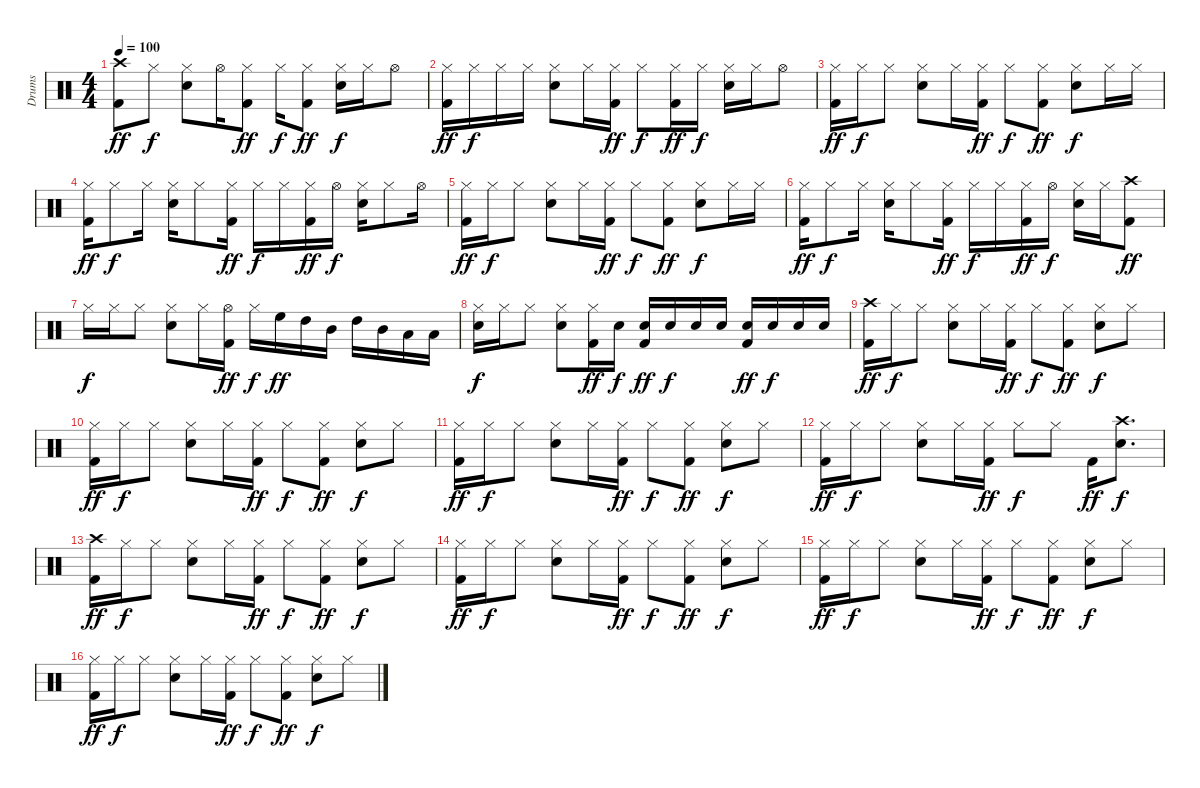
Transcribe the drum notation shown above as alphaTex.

\track ("Drums" "Drums") {instrument percussion}
\staff {score}
\articulation defaults
\ts (4 4)
\tempo 100
\clef neutral
\ks c
("Crash high (hit)" "Kick (hit) 2").8{dy ff} "Hi-Hat (closed)".8{dy f} ("Hi-Hat (closed)" "Snare (hit) 2").8 "Hi-Hat (open)".16 ("Hi-Hat (closed)" "Kick (hit) 2").8{dy ff} "Hi-Hat (closed)".16{dy f} ("Hi-Hat (closed)" "Kick (hit) 2").8{dy ff} ("Hi-Hat (closed)" "Snare (hit) 2").16{dy f} "Hi-Hat (closed)".16 "Hi-Hat (open)".8 |
("Hi-Hat (closed)" "Kick (hit) 2").16{dy ff} "Hi-Hat (closed)".16{dy f} "Hi-Hat (closed)".16 "Hi-Hat (closed)".16 ("Hi-Hat (closed)" "Snare (hit) 2").8 "Hi-Hat (closed)".16 ("Hi-Hat (closed)" "Kick (hit) 2").16{dy ff} "Hi-Hat (closed)".8{dy f} ("Hi-Hat (closed)" "Kick (hit) 2").16{dy ff} "Hi-Hat (closed)".16{dy f} ("Hi-Hat (closed)" "Snare (hit) 2").16 "Hi-Hat (closed)".16 "Hi-Hat (open)".8 |
("Hi-Hat (closed)" "Kick (hit) 2").16{dy ff} "Hi-Hat (closed)".16{dy f} "Hi-Hat (closed)".8 ("Hi-Hat (closed)" "Snare (hit) 2").8 "Hi-Hat (closed)".16 ("Hi-Hat (closed)" "Kick (hit) 2").16{dy ff} "Hi-Hat (closed)".8{dy f} ("Hi-Hat (closed)" "Kick (hit) 2").8{dy ff} ("Hi-Hat (closed)" "Snare (hit) 2").8{dy f} "Hi-Hat (closed)".16 "Hi-Hat (closed)".16 |
("Hi-Hat (closed)" "Kick (hit) 2").16{dy ff} "Hi-Hat (closed)".8{dy f} "Hi-Hat (closed)".16 ("Hi-Hat (closed)" "Snare (hit) 2").16 "Hi-Hat (closed)".8 ("Hi-Hat (closed)" "Kick (hit) 2").16{dy ff} "Hi-Hat (closed)".16{dy f} "Hi-Hat (closed)".16 ("Hi-Hat (closed)" "Kick (hit) 2").16{dy ff} "Hi-Hat (open)".16{dy f} ("Hi-Hat (closed)" "Snare (hit) 2").16 "Hi-Hat (closed)".8 "Hi-Hat (open)".16 |
("Hi-Hat (closed)" "Kick (hit) 2").16{dy ff} "Hi-Hat (closed)".16{dy f} "Hi-Hat (closed)".8 ("Hi-Hat (closed)" "Snare (hit) 2").8 "Hi-Hat (closed)".16 ("Hi-Hat (closed)" "Kick (hit) 2").16{dy ff} "Hi-Hat (closed)".8{dy f} ("Hi-Hat (closed)" "Kick (hit) 2").8{dy ff} ("Hi-Hat (closed)" "Snare (hit) 2").8{dy f} "Hi-Hat (closed)".16 "Hi-Hat (closed)".16 |
("Hi-Hat (closed)" "Kick (hit) 2").16{dy ff} "Hi-Hat (closed)".8{dy f} "Hi-Hat (closed)".16 ("Hi-Hat (closed)" "Snare (hit) 2").16 "Hi-Hat (closed)".8 ("Hi-Hat (closed)" "Kick (hit) 2").16{dy ff} "Hi-Hat (closed)".16{dy f} "Hi-Hat (closed)".16 ("Hi-Hat (closed)" "Kick (hit) 2").16{dy ff} "Hi-Hat (open)".16{dy f} ("Hi-Hat (closed)" "Snare (hit) 2").16 "Hi-Hat (closed)".16 ("Crash high (hit)" "Kick (hit) 2").8{dy ff} |
"Hi-Hat (closed)".16{dy f} "Hi-Hat (closed)".16 "Hi-Hat (closed)".8 ("Hi-Hat (closed)" "Snare (hit) 2").8 "Hi-Hat (closed)".16 ("Hi-Hat (open)" "Kick (hit) 2").16{dy ff} "Hi-Hat (closed)".16{dy f} "High Floor Tom (hit)".16{dy ff} "High Tom (hit)".16 "Mid Tom (hit)".16 "High Tom (hit)".16 "Mid Tom (hit)".16 "Low Tom (hit)".16 "Low Tom (hit)".16 |
("Hi-Hat (closed)" "Snare (hit) 2").16{dy f} "Hi-Hat (closed)".16 "Hi-Hat (closed)".8 ("Hi-Hat (closed)" "Snare (hit) 2").8 ("Hi-Hat (closed)" "Kick (hit) 2").16{dy ff} "Snare (hit) 2".16{dy f} ("Snare (hit) 2" "Kick (hit) 2").16{dy ff} "Snare (hit) 2".16{dy f} "Snare (hit) 2".16 "Snare (hit) 2".16 ("Snare (hit) 2" "Kick (hit) 2").16{dy ff} "Snare (hit) 2".16{dy f} "Snare (hit) 2".16 "Snare (hit) 2".16 |
("Crash high (hit)" "Kick (hit) 2").16{dy ff} "Hi-Hat (closed)".16{dy f} "Hi-Hat (closed)".8 ("Hi-Hat (closed)" "Snare (hit) 2").8 "Hi-Hat (closed)".16 ("Hi-Hat (closed)" "Kick (hit) 2").16{dy ff} "Hi-Hat (closed)".8{dy f} ("Hi-Hat (closed)" "Kick (hit) 2").8{dy ff} ("Hi-Hat (closed)" "Snare (hit) 2").8{dy f} "Hi-Hat (closed)".8 |
("Hi-Hat (closed)" "Kick (hit) 2").16{dy ff} "Hi-Hat (closed)".16{dy f} "Hi-Hat (closed)".8 ("Hi-Hat (closed)" "Snare (hit) 2").8 "Hi-Hat (closed)".16 ("Hi-Hat (closed)" "Kick (hit) 2").16{dy ff} "Hi-Hat (closed)".8{dy f} ("Hi-Hat (closed)" "Kick (hit) 2").8{dy ff} ("Hi-Hat (closed)" "Snare (hit) 2").8{dy f} "Hi-Hat (closed)".8 |
("Hi-Hat (closed)" "Kick (hit) 2").16{dy ff} "Hi-Hat (closed)".16{dy f} "Hi-Hat (closed)".8 ("Hi-Hat (closed)" "Snare (hit) 2").8 "Hi-Hat (closed)".16 ("Hi-Hat (closed)" "Kick (hit) 2").16{dy ff} "Hi-Hat (closed)".8{dy f} ("Hi-Hat (closed)" "Kick (hit) 2").8{dy ff} ("Hi-Hat (closed)" "Snare (hit) 2").8{dy f} "Hi-Hat (closed)".8 |
("Hi-Hat (closed)" "Kick (hit) 2").16{dy ff} "Hi-Hat (closed)".16{dy f} "Hi-Hat (closed)".8 ("Hi-Hat (closed)" "Snare (hit) 2").8 "Hi-Hat (closed)".16 ("Hi-Hat (closed)" "Kick (hit) 2").16{dy ff} "Hi-Hat (closed)".8{dy f} "Hi-Hat (closed)".8 "Kick (hit) 2".16{dy ff} ("Crash high (hit)" "Snare (hit) 2").8{d dy f} |
("Crash high (hit)" "Kick (hit) 2").16{dy ff} "Hi-Hat (closed)".16{dy f} "Hi-Hat (closed)".8 ("Hi-Hat (closed)" "Snare (hit) 2").8 "Hi-Hat (closed)".16 ("Hi-Hat (closed)" "Kick (hit) 2").16{dy ff} "Hi-Hat (closed)".8{dy f} ("Hi-Hat (closed)" "Kick (hit) 2").8{dy ff} ("Hi-Hat (closed)" "Snare (hit) 2").8{dy f} "Hi-Hat (closed)".8 |
("Hi-Hat (closed)" "Kick (hit) 2").16{dy ff} "Hi-Hat (closed)".16{dy f} "Hi-Hat (closed)".8 ("Hi-Hat (closed)" "Snare (hit) 2").8 "Hi-Hat (closed)".16 ("Hi-Hat (closed)" "Kick (hit) 2").16{dy ff} "Hi-Hat (closed)".8{dy f} ("Hi-Hat (closed)" "Kick (hit) 2").8{dy ff} ("Hi-Hat (closed)" "Snare (hit) 2").8{dy f} "Hi-Hat (closed)".8 |
("Hi-Hat (closed)" "Kick (hit) 2").16{dy ff} "Hi-Hat (closed)".16{dy f} "Hi-Hat (closed)".8 ("Hi-Hat (closed)" "Snare (hit) 2").8 "Hi-Hat (closed)".16 ("Hi-Hat (closed)" "Kick (hit) 2").16{dy ff} "Hi-Hat (closed)".8{dy f} ("Hi-Hat (closed)" "Kick (hit) 2").8{dy ff} ("Hi-Hat (closed)" "Snare (hit) 2").8{dy f} "Hi-Hat (closed)".8 |
("Hi-Hat (closed)" "Kick (hit) 2").16{dy ff} "Hi-Hat (closed)".16{dy f} "Hi-Hat (closed)".8 ("Hi-Hat (closed)" "Snare (hit) 2").8 "Hi-Hat (closed)".16 ("Hi-Hat (closed)" "Kick (hit) 2").16{dy ff} "Hi-Hat (closed)".8{dy f} ("Hi-Hat (closed)" "Kick (hit) 2").8{dy ff} ("Hi-Hat (closed)" "Snare (hit) 2").8{dy f} "Hi-Hat (closed)".8
